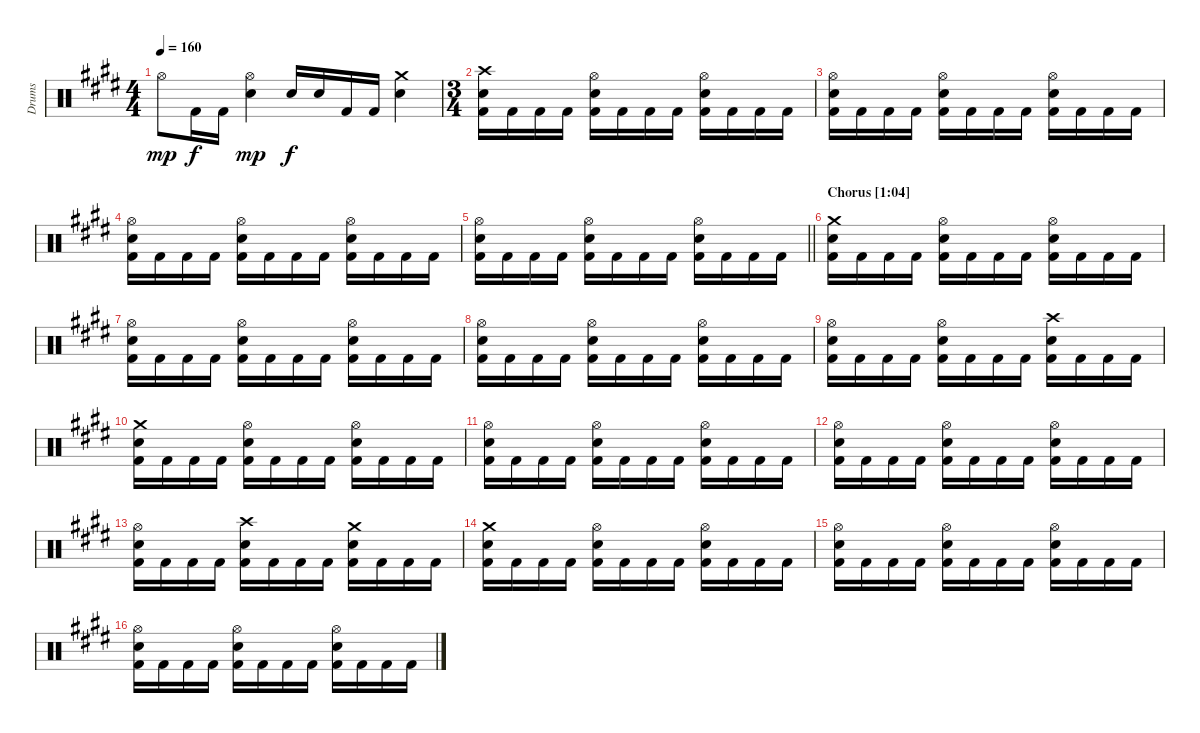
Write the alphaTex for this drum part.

\track ("Drums" "Drums") {instrument percussion}
\staff {score}
\articulation defaults
\ts (4 4)
\tempo 160
\clef neutral
\ks c#minor "Hi-Hat (open)".8{dy mp} "Kick (hit) 2".16{dy f} "Kick (hit) 2".16
("Hi-Hat (open)" "Snare (hit) 2").4{dy mp} "Snare (hit) 2".16{dy f} "Snare (hit) 2".16 "Kick (hit) 2".16 "Kick (hit) 2".16 ("Crash medium (hit)" "Snare (hit) 2").4 |
\ts (3 4)
("Crash high (hit)" "Snare (hit) 2" "Kick (hit) 2").16 "Kick (hit) 2".16 "Kick (hit) 2".16 "Kick (hit) 2".16 ("Hi-Hat (open)" "Snare (hit) 2" "Kick (hit) 2").16 "Kick (hit) 2".16 "Kick (hit) 2".16 "Kick (hit) 2".16 ("Hi-Hat (open)" "Snare (hit) 2" "Kick (hit) 2").16 "Kick (hit) 2".16 "Kick (hit) 2".16 "Kick (hit) 2".16 |
("Hi-Hat (open)" "Snare (hit) 2" "Kick (hit) 2").16 "Kick (hit) 2".16 "Kick (hit) 2".16 "Kick (hit) 2".16 ("Hi-Hat (open)" "Snare (hit) 2" "Kick (hit) 2").16 "Kick (hit) 2".16 "Kick (hit) 2".16 "Kick (hit) 2".16 ("Hi-Hat (open)" "Snare (hit) 2" "Kick (hit) 2").16 "Kick (hit) 2".16 "Kick (hit) 2".16 "Kick (hit) 2".16 |
("Hi-Hat (open)" "Snare (hit) 2" "Kick (hit) 2").16 "Kick (hit) 2".16 "Kick (hit) 2".16 "Kick (hit) 2".16 ("Hi-Hat (open)" "Snare (hit) 2" "Kick (hit) 2").16 "Kick (hit) 2".16 "Kick (hit) 2".16 "Kick (hit) 2".16 ("Hi-Hat (open)" "Snare (hit) 2" "Kick (hit) 2").16 "Kick (hit) 2".16 "Kick (hit) 2".16 "Kick (hit) 2".16 |
\barLineRight lightlight
("Hi-Hat (open)" "Snare (hit) 2" "Kick (hit) 2").16 "Kick (hit) 2".16 "Kick (hit) 2".16 "Kick (hit) 2".16 ("Hi-Hat (open)" "Snare (hit) 2" "Kick (hit) 2").16 "Kick (hit) 2".16 "Kick (hit) 2".16 "Kick (hit) 2".16 ("Hi-Hat (open)" "Snare (hit) 2" "Kick (hit) 2").16 "Kick (hit) 2".16 "Kick (hit) 2".16 "Kick (hit) 2".16 |
\section ("" "Chorus [1:04]")
("Crash medium (hit)" "Snare (hit) 2" "Kick (hit) 2").16 "Kick (hit) 2".16 "Kick (hit) 2".16 "Kick (hit) 2".16 ("Hi-Hat (open)" "Snare (hit) 2" "Kick (hit) 2").16 "Kick (hit) 2".16 "Kick (hit) 2".16 "Kick (hit) 2".16 ("Hi-Hat (open)" "Snare (hit) 2" "Kick (hit) 2").16 "Kick (hit) 2".16 "Kick (hit) 2".16 "Kick (hit) 2".16 |
("Hi-Hat (open)" "Snare (hit) 2" "Kick (hit) 2").16 "Kick (hit) 2".16 "Kick (hit) 2".16 "Kick (hit) 2".16 ("Hi-Hat (open)" "Snare (hit) 2" "Kick (hit) 2").16 "Kick (hit) 2".16 "Kick (hit) 2".16 "Kick (hit) 2".16 ("Hi-Hat (open)" "Snare (hit) 2" "Kick (hit) 2").16 "Kick (hit) 2".16 "Kick (hit) 2".16 "Kick (hit) 2".16 |
("Hi-Hat (open)" "Snare (hit) 2" "Kick (hit) 2").16 "Kick (hit) 2".16 "Kick (hit) 2".16 "Kick (hit) 2".16 ("Hi-Hat (open)" "Snare (hit) 2" "Kick (hit) 2").16 "Kick (hit) 2".16 "Kick (hit) 2".16 "Kick (hit) 2".16 ("Hi-Hat (open)" "Snare (hit) 2" "Kick (hit) 2").16 "Kick (hit) 2".16 "Kick (hit) 2".16 "Kick (hit) 2".16 |
("Hi-Hat (open)" "Snare (hit) 2" "Kick (hit) 2").16 "Kick (hit) 2".16 "Kick (hit) 2".16 "Kick (hit) 2".16 ("Hi-Hat (open)" "Snare (hit) 2" "Kick (hit) 2").16 "Kick (hit) 2".16 "Kick (hit) 2".16 "Kick (hit) 2".16 ("Crash high (hit)" "Snare (hit) 2" "Kick (hit) 2").16 "Kick (hit) 2".16 "Kick (hit) 2".16 "Kick (hit) 2".16 |
("Crash medium (hit)" "Snare (hit) 2" "Kick (hit) 2").16 "Kick (hit) 2".16 "Kick (hit) 2".16 "Kick (hit) 2".16 ("Hi-Hat (open)" "Snare (hit) 2" "Kick (hit) 2").16 "Kick (hit) 2".16 "Kick (hit) 2".16 "Kick (hit) 2".16 ("Hi-Hat (open)" "Snare (hit) 2" "Kick (hit) 2").16 "Kick (hit) 2".16 "Kick (hit) 2".16 "Kick (hit) 2".16 |
("Hi-Hat (open)" "Snare (hit) 2" "Kick (hit) 2").16 "Kick (hit) 2".16 "Kick (hit) 2".16 "Kick (hit) 2".16 ("Hi-Hat (open)" "Snare (hit) 2" "Kick (hit) 2").16 "Kick (hit) 2".16 "Kick (hit) 2".16 "Kick (hit) 2".16 ("Hi-Hat (open)" "Snare (hit) 2" "Kick (hit) 2").16 "Kick (hit) 2".16 "Kick (hit) 2".16 "Kick (hit) 2".16 |
("Hi-Hat (open)" "Snare (hit) 2" "Kick (hit) 2").16 "Kick (hit) 2".16 "Kick (hit) 2".16 "Kick (hit) 2".16 ("Hi-Hat (open)" "Snare (hit) 2" "Kick (hit) 2").16 "Kick (hit) 2".16 "Kick (hit) 2".16 "Kick (hit) 2".16 ("Hi-Hat (open)" "Snare (hit) 2" "Kick (hit) 2").16 "Kick (hit) 2".16 "Kick (hit) 2".16 "Kick (hit) 2".16 |
("Hi-Hat (open)" "Snare (hit) 2" "Kick (hit) 2").16 "Kick (hit) 2".16 "Kick (hit) 2".16 "Kick (hit) 2".16 ("Crash high (hit)" "Snare (hit) 2" "Kick (hit) 2").16 "Kick (hit) 2".16 "Kick (hit) 2".16 "Kick (hit) 2".16 ("Crash medium (hit)" "Snare (hit) 2" "Kick (hit) 2").16 "Kick (hit) 2".16 "Kick (hit) 2".16 "Kick (hit) 2".16 |
("Crash medium (hit)" "Snare (hit) 2" "Kick (hit) 2").16 "Kick (hit) 2".16 "Kick (hit) 2".16 "Kick (hit) 2".16 ("Hi-Hat (open)" "Snare (hit) 2" "Kick (hit) 2").16 "Kick (hit) 2".16 "Kick (hit) 2".16 "Kick (hit) 2".16 ("Hi-Hat (open)" "Snare (hit) 2" "Kick (hit) 2").16 "Kick (hit) 2".16 "Kick (hit) 2".16 "Kick (hit) 2".16 |
("Hi-Hat (open)" "Snare (hit) 2" "Kick (hit) 2").16 "Kick (hit) 2".16 "Kick (hit) 2".16 "Kick (hit) 2".16 ("Hi-Hat (open)" "Snare (hit) 2" "Kick (hit) 2").16 "Kick (hit) 2".16 "Kick (hit) 2".16 "Kick (hit) 2".16 ("Hi-Hat (open)" "Snare (hit) 2" "Kick (hit) 2").16 "Kick (hit) 2".16 "Kick (hit) 2".16 "Kick (hit) 2".16 |
("Hi-Hat (open)" "Snare (hit) 2" "Kick (hit) 2").16 "Kick (hit) 2".16 "Kick (hit) 2".16 "Kick (hit) 2".16 ("Hi-Hat (open)" "Snare (hit) 2" "Kick (hit) 2").16 "Kick (hit) 2".16 "Kick (hit) 2".16 "Kick (hit) 2".16 ("Hi-Hat (open)" "Snare (hit) 2" "Kick (hit) 2").16 "Kick (hit) 2".16 "Kick (hit) 2".16 "Kick (hit) 2".16
